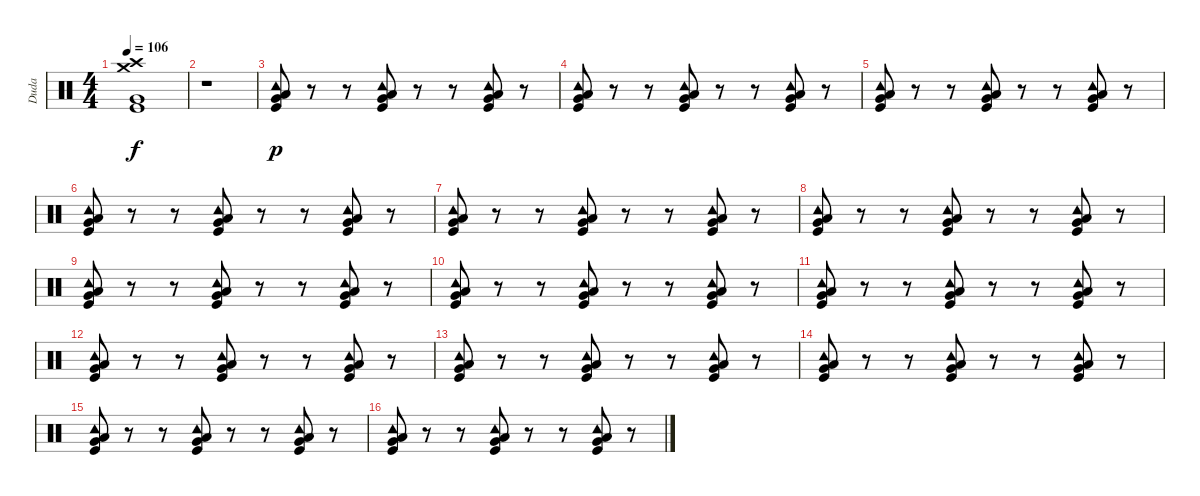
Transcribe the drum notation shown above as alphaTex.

\track ("Duda" "Duda") {instrument percussion}
\staff {score}
\articulation defaults
\ts (4 4)
\tempo 106
\clef neutral
\ks c
("Crash medium (hit)" "Crash high (hit)" "Very Low Tom (hit)" "Kick (hit)").1{dy f} |
r.1 |
("Tambourine (hit)" "Low Floor Tom (hit)" "Very Low Tom (hit)" "Kick (hit)").8{dy p} r.8 r.8 ("Tambourine (hit)" "Low Floor Tom (hit)" "Very Low Tom (hit)" "Kick (hit)").8 r.8 r.8 ("Tambourine (hit)" "Low Floor Tom (hit)" "Very Low Tom (hit)" "Kick (hit)").8 r.8 |
("Tambourine (hit)" "Low Floor Tom (hit)" "Very Low Tom (hit)" "Kick (hit)").8 r.8 r.8 ("Tambourine (hit)" "Low Floor Tom (hit)" "Very Low Tom (hit)" "Kick (hit)").8 r.8 r.8 ("Tambourine (hit)" "Low Floor Tom (hit)" "Very Low Tom (hit)" "Kick (hit)").8 r.8 |
("Tambourine (hit)" "Low Floor Tom (hit)" "Very Low Tom (hit)" "Kick (hit)").8 r.8 r.8 ("Tambourine (hit)" "Low Floor Tom (hit)" "Very Low Tom (hit)" "Kick (hit)").8 r.8 r.8 ("Tambourine (hit)" "Low Floor Tom (hit)" "Very Low Tom (hit)" "Kick (hit)").8 r.8 |
("Tambourine (hit)" "Low Floor Tom (hit)" "Very Low Tom (hit)" "Kick (hit)").8 r.8 r.8 ("Tambourine (hit)" "Low Floor Tom (hit)" "Very Low Tom (hit)" "Kick (hit)").8 r.8 r.8 ("Tambourine (hit)" "Low Floor Tom (hit)" "Very Low Tom (hit)" "Kick (hit)").8 r.8 |
("Tambourine (hit)" "Low Floor Tom (hit)" "Very Low Tom (hit)" "Kick (hit)").8 r.8 r.8 ("Tambourine (hit)" "Low Floor Tom (hit)" "Very Low Tom (hit)" "Kick (hit)").8 r.8 r.8 ("Tambourine (hit)" "Low Floor Tom (hit)" "Very Low Tom (hit)" "Kick (hit)").8 r.8 |
("Tambourine (hit)" "Low Floor Tom (hit)" "Very Low Tom (hit)" "Kick (hit)").8 r.8 r.8 ("Tambourine (hit)" "Low Floor Tom (hit)" "Very Low Tom (hit)" "Kick (hit)").8 r.8 r.8 ("Tambourine (hit)" "Low Floor Tom (hit)" "Very Low Tom (hit)" "Kick (hit)").8 r.8 |
("Tambourine (hit)" "Low Floor Tom (hit)" "Very Low Tom (hit)" "Kick (hit)").8 r.8 r.8 ("Tambourine (hit)" "Low Floor Tom (hit)" "Very Low Tom (hit)" "Kick (hit)").8 r.8 r.8 ("Tambourine (hit)" "Low Floor Tom (hit)" "Very Low Tom (hit)" "Kick (hit)").8 r.8 |
("Tambourine (hit)" "Low Floor Tom (hit)" "Very Low Tom (hit)" "Kick (hit)").8 r.8 r.8 ("Tambourine (hit)" "Low Floor Tom (hit)" "Very Low Tom (hit)" "Kick (hit)").8 r.8 r.8 ("Tambourine (hit)" "Low Floor Tom (hit)" "Very Low Tom (hit)" "Kick (hit)").8 r.8 |
("Tambourine (hit)" "Low Floor Tom (hit)" "Very Low Tom (hit)" "Kick (hit)").8 r.8 r.8 ("Tambourine (hit)" "Low Floor Tom (hit)" "Very Low Tom (hit)" "Kick (hit)").8 r.8 r.8 ("Tambourine (hit)" "Low Floor Tom (hit)" "Very Low Tom (hit)" "Kick (hit)").8 r.8 |
("Tambourine (hit)" "Low Floor Tom (hit)" "Very Low Tom (hit)" "Kick (hit)").8 r.8 r.8 ("Tambourine (hit)" "Low Floor Tom (hit)" "Very Low Tom (hit)" "Kick (hit)").8 r.8 r.8 ("Tambourine (hit)" "Low Floor Tom (hit)" "Very Low Tom (hit)" "Kick (hit)").8 r.8 |
("Tambourine (hit)" "Low Floor Tom (hit)" "Very Low Tom (hit)" "Kick (hit)").8 r.8 r.8 ("Tambourine (hit)" "Low Floor Tom (hit)" "Very Low Tom (hit)" "Kick (hit)").8 r.8 r.8 ("Tambourine (hit)" "Low Floor Tom (hit)" "Very Low Tom (hit)" "Kick (hit)").8 r.8 |
("Tambourine (hit)" "Low Floor Tom (hit)" "Very Low Tom (hit)" "Kick (hit)").8 r.8 r.8 ("Tambourine (hit)" "Low Floor Tom (hit)" "Very Low Tom (hit)" "Kick (hit)").8 r.8 r.8 ("Tambourine (hit)" "Low Floor Tom (hit)" "Very Low Tom (hit)" "Kick (hit)").8 r.8 |
("Tambourine (hit)" "Low Floor Tom (hit)" "Very Low Tom (hit)" "Kick (hit)").8 r.8 r.8 ("Tambourine (hit)" "Low Floor Tom (hit)" "Very Low Tom (hit)" "Kick (hit)").8 r.8 r.8 ("Tambourine (hit)" "Low Floor Tom (hit)" "Very Low Tom (hit)" "Kick (hit)").8 r.8 |
("Tambourine (hit)" "Low Floor Tom (hit)" "Very Low Tom (hit)" "Kick (hit)").8 r.8 r.8 ("Tambourine (hit)" "Low Floor Tom (hit)" "Very Low Tom (hit)" "Kick (hit)").8 r.8 r.8 ("Tambourine (hit)" "Low Floor Tom (hit)" "Very Low Tom (hit)" "Kick (hit)").8 r.8
